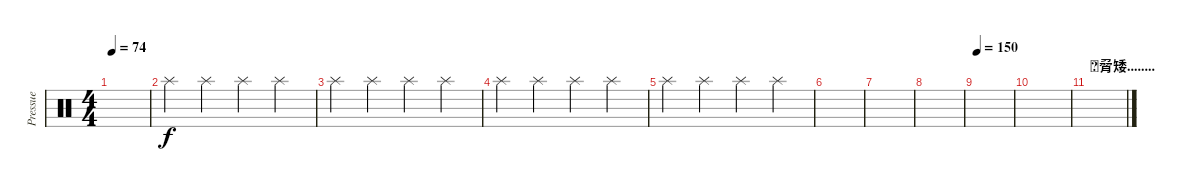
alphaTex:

\track ("Pressue" "Pressue") {instrument percussion}
\staff {score}
\articulation defaults
\ts (4 4)
\tempo 74
\clef neutral
\ks c
|
"Splash (hit)".4 "Splash (hit)".4 "Splash (hit)".4 "Splash (hit)".4 |
"Splash (hit)".4 "Splash (hit)".4 "Splash (hit)".4 "Splash (hit)".4 |
"Splash (hit)".4 "Splash (hit)".4 "Splash (hit)".4 "Splash (hit)".4 |
"Splash (hit)".4 "Splash (hit)".4 "Splash (hit)".4 "Splash (hit)".4 |
|
|
|
\tempo 150
|
|
\section ("" "脋矮........")
